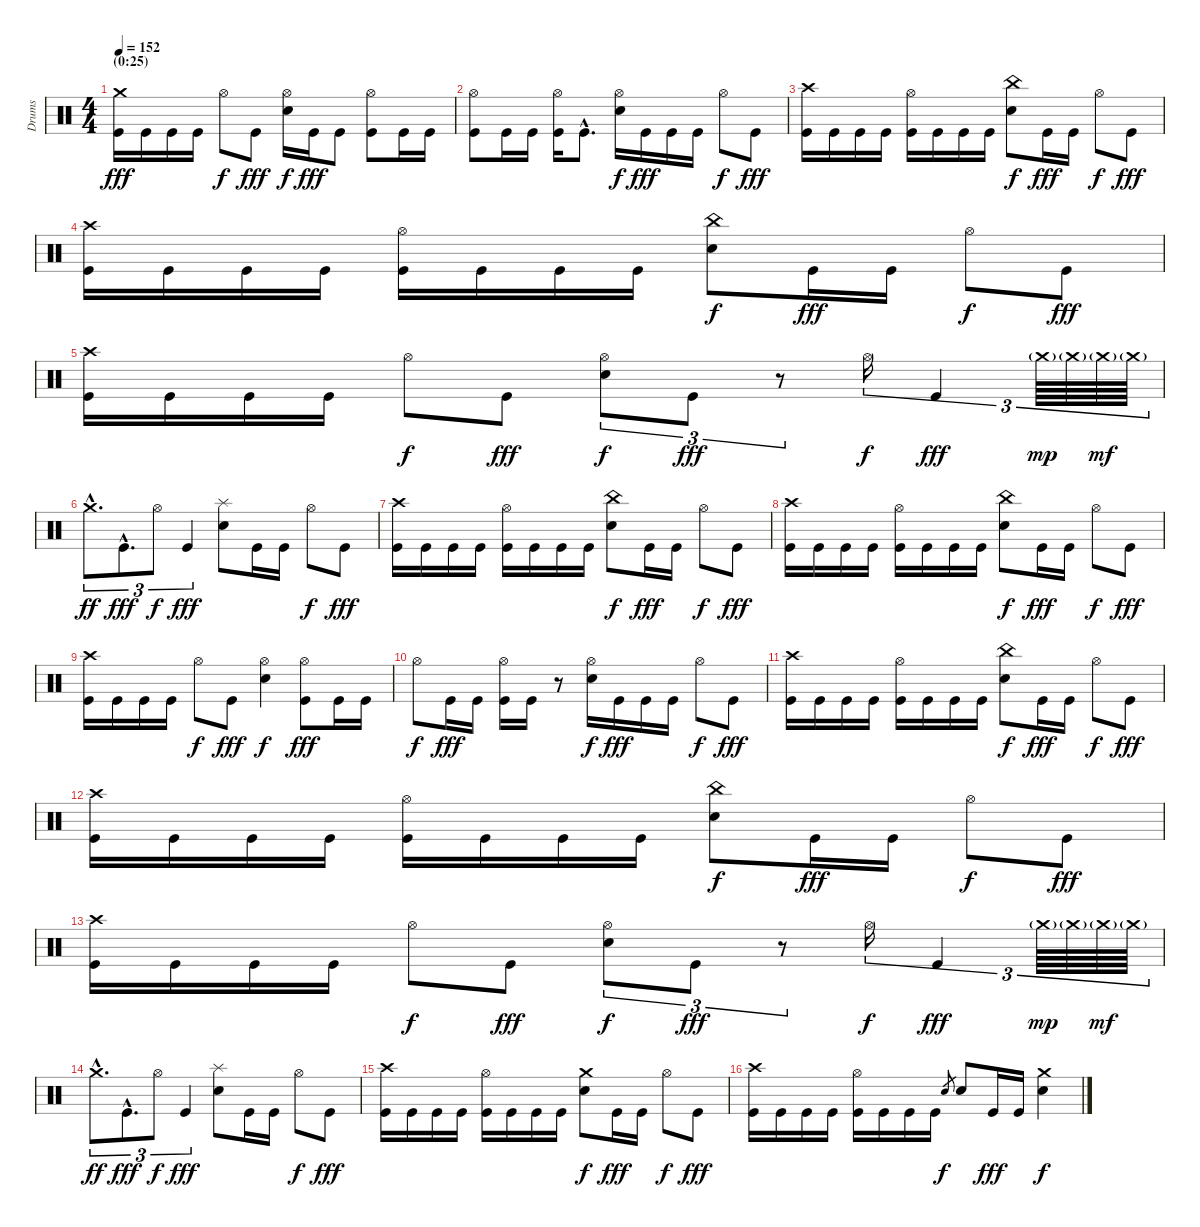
\track ("Drums" "Drums") {instrument percussion}
\staff {score}
\articulation defaults
\ts (4 4)
\section ("" "(0:25)")
\tempo 152
\clef neutral
\ks c
("Crash medium (hit)" "Kick (hit)").16{dy fff} "Kick (hit)".16 "Kick (hit)".16 "Kick (hit)".16 "Hi-Hat (open)".8{dy f} "Kick (hit)".8{dy fff} ("Hi-Hat (open)" "Snare (hit) 2").16{dy f} "Kick (hit)".16{dy fff} "Kick (hit)".8 ("Hi-Hat (open)" "Kick (hit)").8 "Kick (hit)".16 "Kick (hit)".16 |
("Hi-Hat (open)" "Kick (hit)").8 "Kick (hit)".16 "Kick (hit)".16 ("Hi-Hat (open)" "Kick (hit)").16 "Kick (hit)"{hac}.8{d} ("Hi-Hat (open)" "Snare (hit) 2").16{dy f} "Kick (hit)".16{dy fff} "Kick (hit)".16 "Kick (hit)".16 "Hi-Hat (open)".8{dy f} "Kick (hit)".8{dy fff} |
("Crash high (hit)" "Kick (hit)").16 "Kick (hit)".16 "Kick (hit)".16 "Kick (hit)".16 ("Hi-Hat (open)" "Kick (hit)").16 "Kick (hit)".16 "Kick (hit)".16 "Kick (hit)".16 ("China (hit)" "Snare (hit) 2").8{dy f} "Kick (hit)".16{dy fff} "Kick (hit)".16 "Hi-Hat (open)".8{dy f} "Kick (hit)".8{dy fff} |
("Crash high (hit)" "Kick (hit)").16 "Kick (hit)".16 "Kick (hit)".16 "Kick (hit)".16 ("Hi-Hat (open)" "Kick (hit)").16 "Kick (hit)".16 "Kick (hit)".16 "Kick (hit)".16 ("China (hit)" "Snare (hit) 2").8{dy f} "Kick (hit)".16{dy fff} "Kick (hit)".16 "Hi-Hat (open)".8{dy f} "Kick (hit)".8{dy fff} |
("Crash high (hit)" "Kick (hit)").16 "Kick (hit)".16 "Kick (hit)".16 "Kick (hit)".16 "Hi-Hat (open)".8{dy f} "Kick (hit)".8{dy fff} ("Hi-Hat (open)" "Snare (hit) 2").8{tu (3 2) dy f} "Kick (hit)".8{tu (3 2) dy fff} r.8{tu (3 2)} "Hi-Hat (open)".16{tu (3 2) dy f} "Kick (hit)".4{tu (3 2) dy fff} "Crash medium (hit)"{g}.64{tu (3 2) dy mp} "Crash medium (hit)"{g}.64{tu (3 2)} "Crash medium (hit)"{g}.64{tu (3 2) dy mf} "Crash medium (hit)"{g}.64{tu (3 2)} |
"Crash medium (hit)"{hac}.8{d tu (3 2) dy ff} "Kick (hit)"{hac}.8{d tu (3 2) dy fff} "Hi-Hat (open)".8{tu (3 2) dy f} "Kick (hit)".4{tu (3 2) dy fff} ("Splash (hit)" "Snare (hit) 2").8 "Kick (hit)".16 "Kick (hit)".16 "Hi-Hat (open)".8{dy f} "Kick (hit)".8{dy fff} |
("Crash high (hit)" "Kick (hit)").16 "Kick (hit)".16 "Kick (hit)".16 "Kick (hit)".16 ("Hi-Hat (open)" "Kick (hit)").16 "Kick (hit)".16 "Kick (hit)".16 "Kick (hit)".16 ("China (hit)" "Snare (hit) 2").8{dy f} "Kick (hit)".16{dy fff} "Kick (hit)".16 "Hi-Hat (open)".8{dy f} "Kick (hit)".8{dy fff} |
("Crash high (hit)" "Kick (hit)").16 "Kick (hit)".16 "Kick (hit)".16 "Kick (hit)".16 ("Hi-Hat (open)" "Kick (hit)").16 "Kick (hit)".16 "Kick (hit)".16 "Kick (hit)".16 ("China (hit)" "Snare (hit) 2").8{dy f} "Kick (hit)".16{dy fff} "Kick (hit)".16 "Hi-Hat (open)".8{dy f} "Kick (hit)".8{dy fff} |
("Crash high (hit)" "Kick (hit)").16 "Kick (hit)".16 "Kick (hit)".16 "Kick (hit)".16 "Hi-Hat (open)".8{dy f} "Kick (hit)".8{dy fff} ("Hi-Hat (open)" "Snare (hit) 2").4{dy f} ("Hi-Hat (open)" "Kick (hit)").8{dy fff} "Kick (hit)".16 "Kick (hit)".16 |
"Hi-Hat (open)".8{dy f} "Kick (hit)".16{dy fff} "Kick (hit)".16 ("Hi-Hat (open)" "Kick (hit)").16 "Kick (hit)".16 r.8 ("Hi-Hat (open)" "Snare (hit) 2").16{dy f} "Kick (hit)".16{dy fff} "Kick (hit)".16 "Kick (hit)".16 "Hi-Hat (open)".8{dy f} "Kick (hit)".8{dy fff} |
("Crash high (hit)" "Kick (hit)").16 "Kick (hit)".16 "Kick (hit)".16 "Kick (hit)".16 ("Hi-Hat (open)" "Kick (hit)").16 "Kick (hit)".16 "Kick (hit)".16 "Kick (hit)".16 ("China (hit)" "Snare (hit) 2").8{dy f} "Kick (hit)".16{dy fff} "Kick (hit)".16 "Hi-Hat (open)".8{dy f} "Kick (hit)".8{dy fff} |
("Crash high (hit)" "Kick (hit)").16 "Kick (hit)".16 "Kick (hit)".16 "Kick (hit)".16 ("Hi-Hat (open)" "Kick (hit)").16 "Kick (hit)".16 "Kick (hit)".16 "Kick (hit)".16 ("China (hit)" "Snare (hit) 2").8{dy f} "Kick (hit)".16{dy fff} "Kick (hit)".16 "Hi-Hat (open)".8{dy f} "Kick (hit)".8{dy fff} |
("Crash high (hit)" "Kick (hit)").16 "Kick (hit)".16 "Kick (hit)".16 "Kick (hit)".16 "Hi-Hat (open)".8{dy f} "Kick (hit)".8{dy fff} ("Hi-Hat (open)" "Snare (hit) 2").8{tu (3 2) dy f} "Kick (hit)".8{tu (3 2) dy fff} r.8{tu (3 2)} "Hi-Hat (open)".16{tu (3 2) dy f} "Kick (hit)".4{tu (3 2) dy fff} "Crash medium (hit)"{g}.64{tu (3 2) dy mp} "Crash medium (hit)"{g}.64{tu (3 2)} "Crash medium (hit)"{g}.64{tu (3 2) dy mf} "Crash medium (hit)"{g}.64{tu (3 2)} |
"Crash medium (hit)"{hac}.8{d tu (3 2) dy ff} "Kick (hit)"{hac}.8{d tu (3 2) dy fff} "Hi-Hat (open)".8{tu (3 2) dy f} "Kick (hit)".4{tu (3 2) dy fff} ("Splash (hit)" "Snare (hit) 2").8 "Kick (hit)".16 "Kick (hit)".16 "Hi-Hat (open)".8{dy f} "Kick (hit)".8{dy fff} |
("Crash high (hit)" "Kick (hit)").16 "Kick (hit)".16 "Kick (hit)".16 "Kick (hit)".16 ("Hi-Hat (open)" "Kick (hit)").16 "Kick (hit)".16 "Kick (hit)".16 "Kick (hit)".16 ("Crash medium (hit)" "Snare (hit) 2").8{dy f} "Kick (hit)".16{dy fff} "Kick (hit)".16 "Hi-Hat (open)".8{dy f} "Kick (hit)".8{dy fff} |
("Crash high (hit)" "Kick (hit)").16 "Kick (hit)".16 "Kick (hit)".16 "Kick (hit)".16 ("Hi-Hat (open)" "Kick (hit)").16 "Kick (hit)".16 "Kick (hit)".16 "Kick (hit)".16 "Snare (hit) 2".8{gr dy f} "Snare (hit) 2".8 "Kick (hit)".16{dy fff} "Kick (hit)".16 ("Crash medium (hit)" "Snare (hit) 2").4{dy f}
